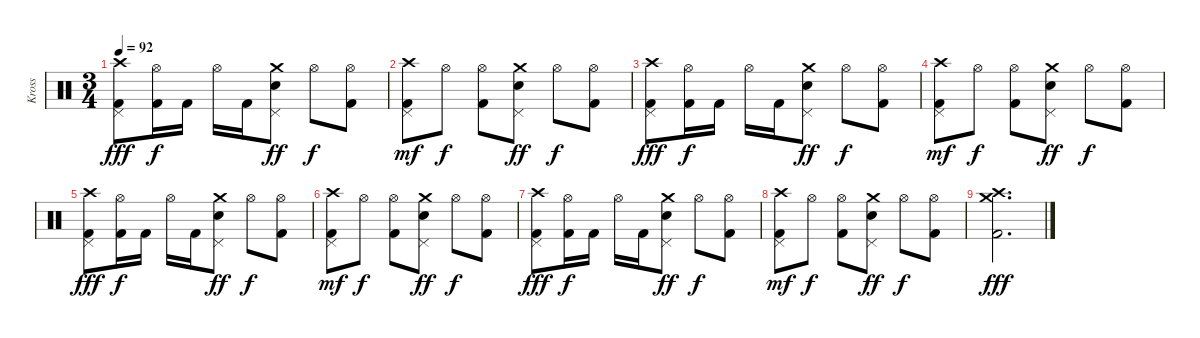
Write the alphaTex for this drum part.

\track ("Kross" "Kross") {instrument percussion}
\staff {score}
\articulation defaults
\ts (3 4)
\tempo 92
\clef neutral
\ks c
("Crash high (hit)" "Pedal Hi-Hat (hit)" "Kick (hit) 2").8{dy fff} ("Hi-Hat (open)" "Kick (hit) 2").16{dy f} "Kick (hit) 2".16 "Hi-Hat (open)".16 "Kick (hit) 2".16 ("Crash medium (hit)" "Pedal Hi-Hat (hit)" "Snare (hit) 2").8{dy ff} "Hi-Hat (open)".8{dy f} ("Hi-Hat (open)" "Kick (hit) 2").8 |
("Crash high (hit)" "Pedal Hi-Hat (hit)" "Kick (hit) 2").8{dy mf} "Hi-Hat (open)".8{dy f} ("Hi-Hat (open)" "Kick (hit) 2").8 ("Crash medium (hit)" "Pedal Hi-Hat (hit)" "Snare (hit) 2").8{dy ff} "Hi-Hat (open)".8{dy f} ("Hi-Hat (open)" "Kick (hit) 2").8 |
("Crash high (hit)" "Pedal Hi-Hat (hit)" "Kick (hit) 2").8{dy fff} ("Hi-Hat (open)" "Kick (hit) 2").16{dy f} "Kick (hit) 2".16 "Hi-Hat (open)".16 "Kick (hit) 2".16 ("Crash medium (hit)" "Pedal Hi-Hat (hit)" "Snare (hit) 2").8{dy ff} "Hi-Hat (open)".8{dy f} ("Hi-Hat (open)" "Kick (hit) 2").8 |
("Crash high (hit)" "Pedal Hi-Hat (hit)" "Kick (hit) 2").8{dy mf} "Hi-Hat (open)".8{dy f} ("Hi-Hat (open)" "Kick (hit) 2").8 ("Crash medium (hit)" "Pedal Hi-Hat (hit)" "Snare (hit) 2").8{dy ff} "Hi-Hat (open)".8{dy f} ("Hi-Hat (open)" "Kick (hit) 2").8 |
("Crash high (hit)" "Pedal Hi-Hat (hit)" "Kick (hit) 2").8{dy fff} ("Hi-Hat (open)" "Kick (hit) 2").16{dy f} "Kick (hit) 2".16 "Hi-Hat (open)".16 "Kick (hit) 2".16 ("Crash medium (hit)" "Pedal Hi-Hat (hit)" "Snare (hit) 2").8{dy ff} "Hi-Hat (open)".8{dy f} ("Hi-Hat (open)" "Kick (hit) 2").8 |
("Crash high (hit)" "Pedal Hi-Hat (hit)" "Kick (hit) 2").8{dy mf} "Hi-Hat (open)".8{dy f} ("Hi-Hat (open)" "Kick (hit) 2").8 ("Crash medium (hit)" "Pedal Hi-Hat (hit)" "Snare (hit) 2").8{dy ff} "Hi-Hat (open)".8{dy f} ("Hi-Hat (open)" "Kick (hit) 2").8 |
("Crash high (hit)" "Pedal Hi-Hat (hit)" "Kick (hit) 2").8{dy fff} ("Hi-Hat (open)" "Kick (hit) 2").16{dy f} "Kick (hit) 2".16 "Hi-Hat (open)".16 "Kick (hit) 2".16 ("Crash medium (hit)" "Pedal Hi-Hat (hit)" "Snare (hit) 2").8{dy ff} "Hi-Hat (open)".8{dy f} ("Hi-Hat (open)" "Kick (hit) 2").8 |
("Crash high (hit)" "Pedal Hi-Hat (hit)" "Kick (hit) 2").8{dy mf} "Hi-Hat (open)".8{dy f} ("Hi-Hat (open)" "Kick (hit) 2").8 ("Crash medium (hit)" "Pedal Hi-Hat (hit)" "Snare (hit) 2").8{dy ff} "Hi-Hat (open)".8{dy f} ("Hi-Hat (open)" "Kick (hit) 2").8 |
("Crash medium (hit)" "Crash high (hit)" "Kick (hit) 2").2{d dy fff}
